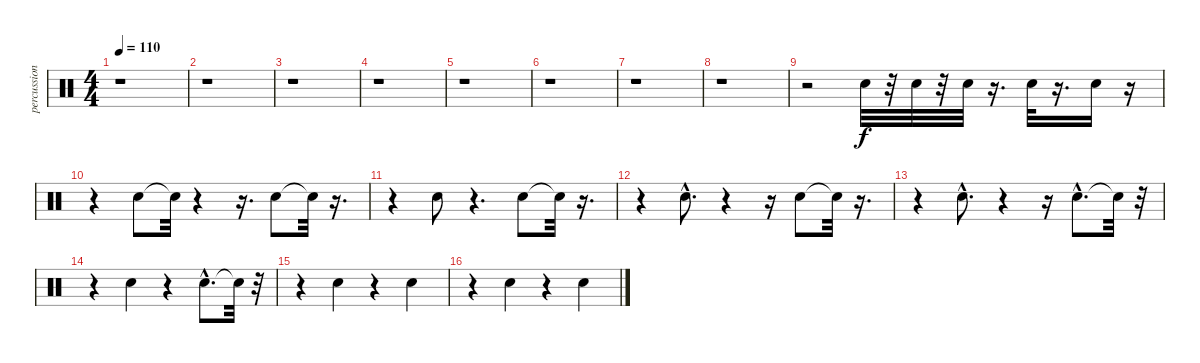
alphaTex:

\track ("percussions 3" "percussion") {instrument percussion}
\staff {score}
\articulation defaults
\ts (4 4)
\tempo 110
\clef neutral
\ks c
r.1{dy f} |
r.1 |
r.1 |
r.1 |
r.1 |
r.1 |
r.1 |
r.1 |
r.2 "Electric Snare (hit)".32 r.32 "Electric Snare (hit)".32 r.32 "Electric Snare (hit)".32 r.16{d} "Electric Snare (hit)".32 r.16{d} "Electric Snare (hit)".16 r.16 |
r.4 "Electric Snare (hit)".8 "Snare (hit)"{t}.32 r.4 r.16{d} "Electric Snare (hit)".8 "Snare (hit)"{t}.32 r.16{d} |
r.4 "Electric Snare (hit)".8 r.4{d} "Electric Snare (hit)".8 "Snare (hit)"{t}.32 r.16{d} |
r.4 "Electric Snare (hit)"{hac}.8{d} r.4 r.16 "Electric Snare (hit)".8 "Snare (hit)"{t}.32 r.16{d} |
r.4 "Electric Snare (hit)"{hac}.8{d} r.4 r.16 "Electric Snare (hit)"{hac}.8{d} "Snare (hit)"{t}.32 r.32 |
r.4 "Electric Snare (hit)".4 r.4 "Electric Snare (hit)"{hac}.8{d} "Snare (hit)"{t}.32 r.32 |
r.4 "Electric Snare (hit)".4 r.4 "Electric Snare (hit)".4 |
r.4 "Electric Snare (hit)".4 r.4 "Electric Snare (hit)".4
